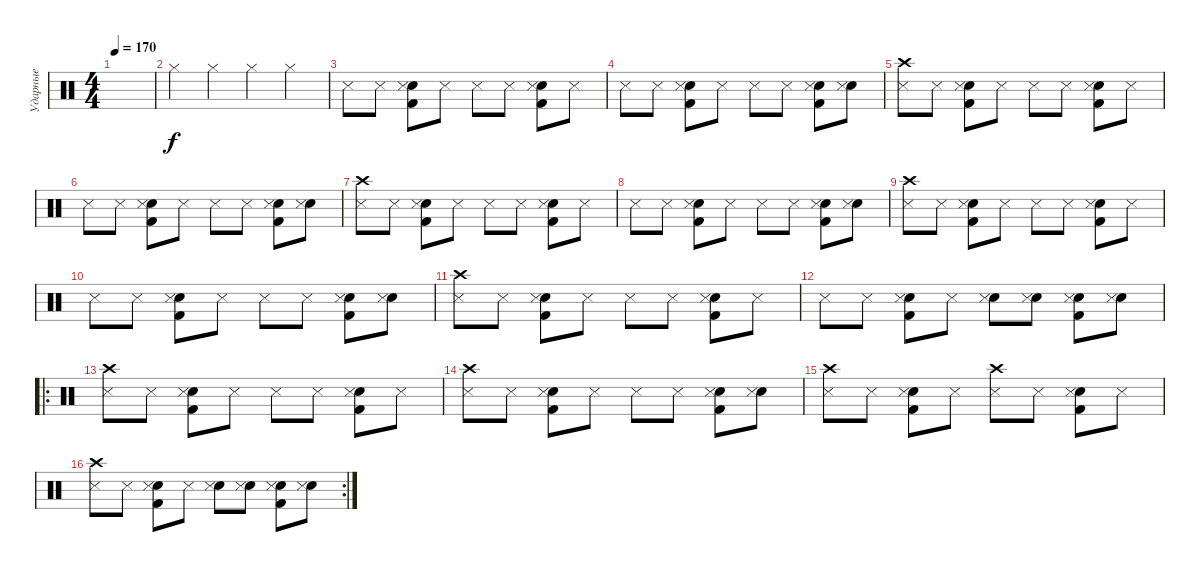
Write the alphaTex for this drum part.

\track ("Ударные" "Ударные") {instrument percussion}
\staff {score}
\articulation defaults
\ts (4 4)
\tempo 170
\clef neutral
\ks c
|
"Hi-Hat (closed)".4 "Hi-Hat (closed)".4 "Hi-Hat (closed)".4 "Hi-Hat (closed)".4 |
"Snare (side stick) 3".8 "Snare (side stick) 3".8 ("Kick (hit) 2" "Snare (hit) 2" "Snare (side stick) 3").8 "Snare (side stick) 3".8 "Snare (side stick) 3".8 "Snare (side stick) 3".8 ("Kick (hit) 2" "Snare (hit) 2" "Snare (side stick) 3").8 "Snare (side stick) 3".8 |
"Snare (side stick) 3".8 "Snare (side stick) 3".8 ("Kick (hit) 2" "Snare (hit) 2" "Snare (side stick) 3").8 "Snare (side stick) 3".8 "Snare (side stick) 3".8 "Snare (side stick) 3".8 ("Kick (hit) 2" "Snare (hit) 2" "Snare (side stick) 3").8 ("Snare (hit) 2" "Snare (side stick) 3").8 |
("Crash high (hit)" "Snare (side stick) 3").8 "Snare (side stick) 3".8 ("Kick (hit) 2" "Snare (hit) 2" "Snare (side stick) 3").8 "Snare (side stick) 3".8 "Snare (side stick) 3".8 "Snare (side stick) 3".8 ("Kick (hit) 2" "Snare (hit) 2" "Snare (side stick) 3").8 "Snare (side stick) 3".8 |
"Snare (side stick) 3".8 "Snare (side stick) 3".8 ("Kick (hit) 2" "Snare (hit) 2" "Snare (side stick) 3").8 "Snare (side stick) 3".8 "Snare (side stick) 3".8 "Snare (side stick) 3".8 ("Kick (hit) 2" "Snare (hit) 2" "Snare (side stick) 3").8 ("Snare (hit) 2" "Snare (side stick) 3").8 |
("Crash high (hit)" "Snare (side stick) 3").8 "Snare (side stick) 3".8 ("Kick (hit) 2" "Snare (hit) 2" "Snare (side stick) 3").8 "Snare (side stick) 3".8 "Snare (side stick) 3".8 "Snare (side stick) 3".8 ("Kick (hit) 2" "Snare (hit) 2" "Snare (side stick) 3").8 "Snare (side stick) 3".8 |
"Snare (side stick) 3".8 "Snare (side stick) 3".8 ("Kick (hit) 2" "Snare (hit) 2" "Snare (side stick) 3").8 "Snare (side stick) 3".8 "Snare (side stick) 3".8 "Snare (side stick) 3".8 ("Kick (hit) 2" "Snare (hit) 2" "Snare (side stick) 3").8 ("Snare (hit) 2" "Snare (side stick) 3").8 |
("Crash high (hit)" "Snare (side stick) 3").8 "Snare (side stick) 3".8 ("Kick (hit) 2" "Snare (hit) 2" "Snare (side stick) 3").8 "Snare (side stick) 3".8 "Snare (side stick) 3".8 "Snare (side stick) 3".8 ("Kick (hit) 2" "Snare (hit) 2" "Snare (side stick) 3").8 "Snare (side stick) 3".8 |
"Snare (side stick) 3".8 "Snare (side stick) 3".8 ("Kick (hit) 2" "Snare (hit) 2" "Snare (side stick) 3").8 "Snare (side stick) 3".8 "Snare (side stick) 3".8 "Snare (side stick) 3".8 ("Kick (hit) 2" "Snare (hit) 2" "Snare (side stick) 3").8 ("Snare (hit) 2" "Snare (side stick) 3").8 |
("Crash high (hit)" "Snare (side stick) 3").8 "Snare (side stick) 3".8 ("Kick (hit) 2" "Snare (hit) 2" "Snare (side stick) 3").8 "Snare (side stick) 3".8 "Snare (side stick) 3".8 "Snare (side stick) 3".8 ("Kick (hit) 2" "Snare (hit) 2" "Snare (side stick) 3").8 "Snare (side stick) 3".8 |
"Snare (side stick) 3".8 "Snare (side stick) 3".8 ("Kick (hit) 2" "Snare (hit) 2" "Snare (side stick) 3").8 "Snare (side stick) 3".8 ("Snare (hit) 2" "Snare (side stick) 3").8 ("Snare (hit) 2" "Snare (side stick) 3").8 ("Kick (hit) 2" "Snare (hit) 2" "Snare (side stick) 3").8 ("Snare (hit) 2" "Snare (side stick) 3").8 |
\ro
("Crash high (hit)" "Snare (side stick) 3").8 "Snare (side stick) 3".8 ("Kick (hit) 2" "Snare (hit) 2" "Snare (side stick) 3").8 "Snare (side stick) 3".8 "Snare (side stick) 3".8 "Snare (side stick) 3".8 ("Kick (hit) 2" "Snare (hit) 2" "Snare (side stick) 3").8 "Snare (side stick) 3".8 |
("Crash high (hit)" "Snare (side stick) 3").8 "Snare (side stick) 3".8 ("Kick (hit) 2" "Snare (hit) 2" "Snare (side stick) 3").8 "Snare (side stick) 3".8 "Snare (side stick) 3".8 "Snare (side stick) 3".8 ("Kick (hit) 2" "Snare (hit) 2" "Snare (side stick) 3").8 ("Snare (hit) 2" "Snare (side stick) 3").8 |
("Crash high (hit)" "Snare (side stick) 3").8 "Snare (side stick) 3".8 ("Kick (hit) 2" "Snare (hit) 2" "Snare (side stick) 3").8 "Snare (side stick) 3".8 ("Crash high (hit)" "Snare (side stick) 3").8 "Snare (side stick) 3".8 ("Kick (hit) 2" "Snare (hit) 2" "Snare (side stick) 3").8 "Snare (side stick) 3".8 |
\rc 2
("Crash high (hit)" "Snare (side stick) 3").8 "Snare (side stick) 3".8 ("Kick (hit) 2" "Snare (hit) 2" "Snare (side stick) 3").8 "Snare (side stick) 3".8 ("Snare (hit) 2" "Snare (side stick) 3").8 ("Snare (hit) 2" "Snare (side stick) 3").8 ("Kick (hit) 2" "Snare (hit) 2" "Snare (side stick) 3").8 ("Snare (hit) 2" "Snare (side stick) 3").8
